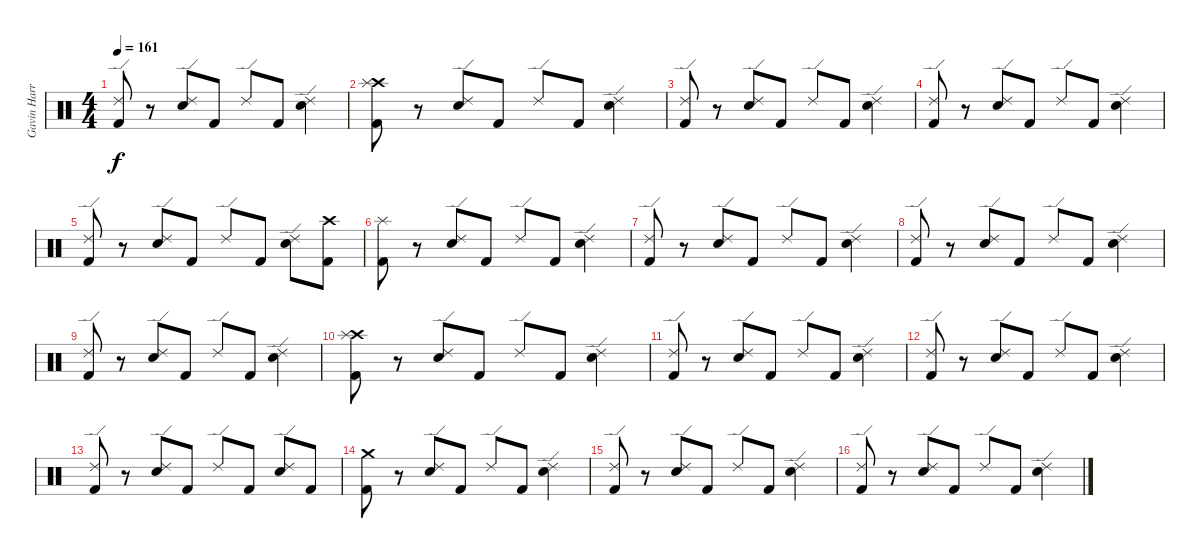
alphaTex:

\track ("Gavin Harrison (Drums)" "Gavin Harr") {instrument percussion}
\staff {score}
\articulation defaults
\ts (4 4)
\tempo 161
\clef neutral
\ks c
("Ride (edge) 2" "Kick (hit) 2").8{dy f} r.8 ("Ride (edge) 2" "Electric Snare (hit)").8 "Kick (hit) 2".8 "Ride (edge) 2".8 "Kick (hit) 2".8 ("Ride (edge) 2" "Electric Snare (hit)").4 |
("Crash high (hit)" "Splash (hit)" "Kick (hit) 2").8 r.8 ("Ride (edge) 2" "Electric Snare (hit)").8 "Kick (hit) 2".8 "Ride (edge) 2".8 "Kick (hit) 2".8 ("Ride (edge) 2" "Electric Snare (hit)").4 |
("Ride (edge) 2" "Kick (hit) 2").8 r.8 ("Ride (edge) 2" "Electric Snare (hit)").8 "Kick (hit) 2".8 "Ride (edge) 2".8 "Kick (hit) 2".8 ("Ride (edge) 2" "Electric Snare (hit)").4 |
("Ride (edge) 2" "Kick (hit) 2").8 r.8 ("Ride (edge) 2" "Electric Snare (hit)").8 "Kick (hit) 2".8 "Ride (edge) 2".8 "Kick (hit) 2".8 ("Ride (edge) 2" "Electric Snare (hit)").4 |
("Ride (edge) 2" "Kick (hit) 2").8 r.8 ("Ride (edge) 2" "Electric Snare (hit)").8 "Kick (hit) 2".8 "Ride (edge) 2".8 "Kick (hit) 2".8 ("Ride (edge) 2" "Electric Snare (hit)").8 ("Crash high (hit)" "Kick (hit) 2").8 |
("Splash (hit)" "Kick (hit) 2").8 r.8 ("Ride (edge) 2" "Electric Snare (hit)").8 "Kick (hit) 2".8 "Ride (edge) 2".8 "Kick (hit) 2".8 ("Ride (edge) 2" "Electric Snare (hit)").4 |
("Ride (edge) 2" "Kick (hit) 2").8 r.8 ("Ride (edge) 2" "Electric Snare (hit)").8 "Kick (hit) 2".8 "Ride (edge) 2".8 "Kick (hit) 2".8 ("Ride (edge) 2" "Electric Snare (hit)").4 |
("Ride (edge) 2" "Kick (hit) 2").8 r.8 ("Ride (edge) 2" "Electric Snare (hit)").8 "Kick (hit) 2".8 "Ride (edge) 2".8 "Kick (hit) 2".8 ("Ride (edge) 2" "Electric Snare (hit)").4 |
("Ride (edge) 2" "Kick (hit) 2").8 r.8 ("Ride (edge) 2" "Electric Snare (hit)").8 "Kick (hit) 2".8 "Ride (edge) 2".8 "Kick (hit) 2".8 ("Ride (edge) 2" "Electric Snare (hit)").4 |
("Crash high (hit)" "Splash (hit)" "Kick (hit) 2").8 r.8 ("Ride (edge) 2" "Electric Snare (hit)").8 "Kick (hit) 2".8 "Ride (edge) 2".8 "Kick (hit) 2".8 ("Ride (edge) 2" "Electric Snare (hit)").4 |
("Ride (edge) 2" "Kick (hit) 2").8 r.8 ("Ride (edge) 2" "Electric Snare (hit)").8 "Kick (hit) 2".8 "Ride (edge) 2".8 "Kick (hit) 2".8 ("Ride (edge) 2" "Electric Snare (hit)").4 |
("Ride (edge) 2" "Kick (hit) 2").8 r.8 ("Ride (edge) 2" "Electric Snare (hit)").8 "Kick (hit) 2".8 "Ride (edge) 2".8 "Kick (hit) 2".8 ("Ride (edge) 2" "Electric Snare (hit)").4 |
("Ride (edge) 2" "Kick (hit) 2").8 r.8 ("Ride (edge) 2" "Electric Snare (hit)").8 "Kick (hit) 2".8 "Ride (edge) 2".8 "Kick (hit) 2".8 ("Ride (edge) 2" "Electric Snare (hit)").8 "Kick (hit) 2".8 |
("Crash medium (hit)" "Kick (hit) 2").8 r.8 ("Ride (edge) 2" "Electric Snare (hit)").8 "Kick (hit) 2".8 "Ride (edge) 2".8 "Kick (hit) 2".8 ("Ride (edge) 2" "Electric Snare (hit)").4 |
("Ride (edge) 2" "Kick (hit) 2").8 r.8 ("Ride (edge) 2" "Electric Snare (hit)").8 "Kick (hit) 2".8 "Ride (edge) 2".8 "Kick (hit) 2".8 ("Ride (edge) 2" "Electric Snare (hit)").4 |
("Ride (edge) 2" "Kick (hit) 2").8 r.8 ("Ride (edge) 2" "Electric Snare (hit)").8 "Kick (hit) 2".8 "Ride (edge) 2".8 "Kick (hit) 2".8 ("Ride (edge) 2" "Electric Snare (hit)").4
